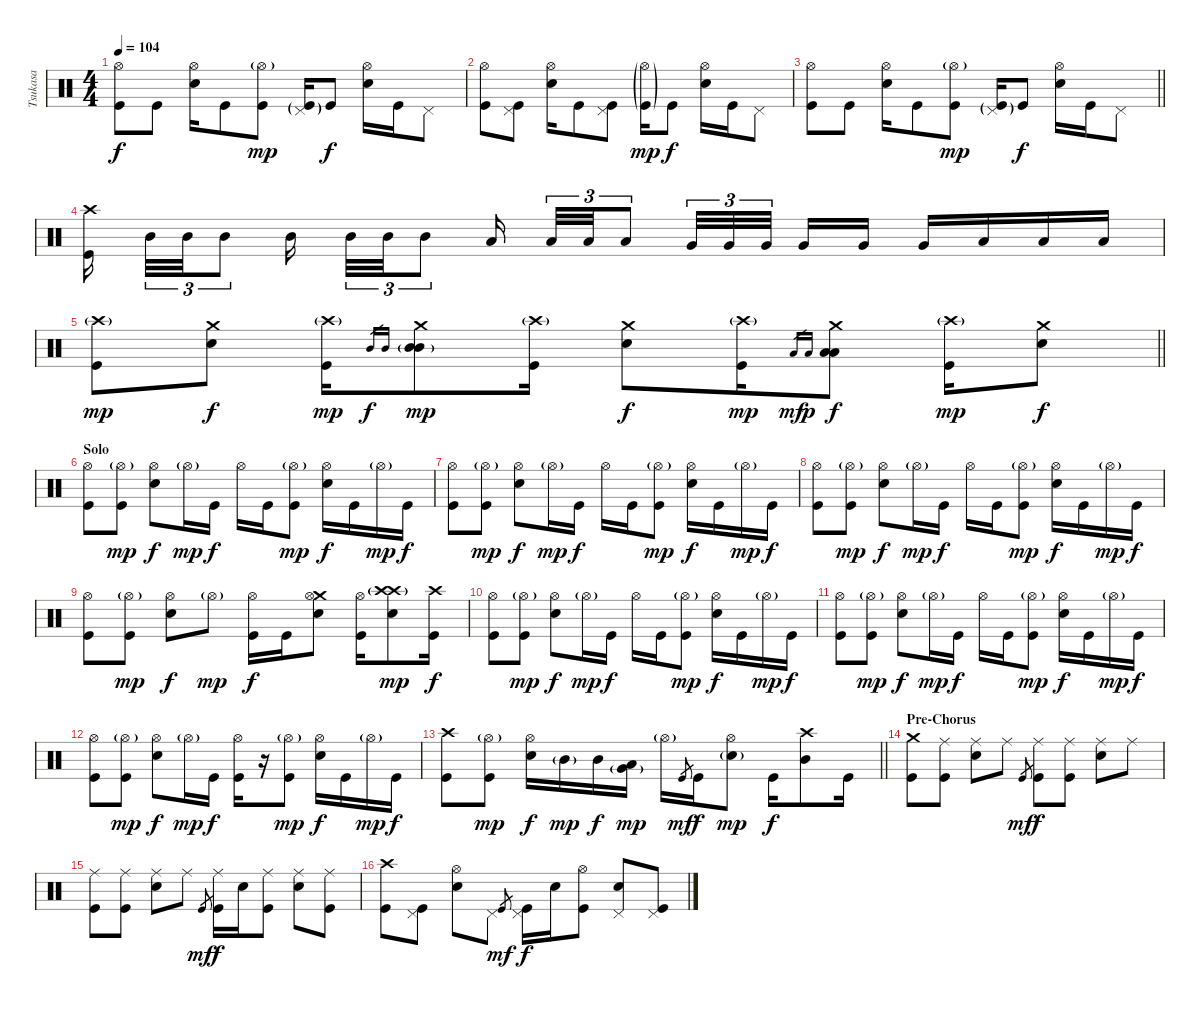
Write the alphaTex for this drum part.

\track ("Tsukasa" "Tsukasa") {instrument percussion}
\staff {score}
\articulation defaults
\ts (4 4)
\tempo 104
\clef neutral
\ks c
("Hi-Hat (open)" "Kick (hit)").8{dy f} "Kick (hit)".8 ("Hi-Hat (open)" "Snare (hit) 2").16 "Kick (hit)".8 ("Hi-Hat (open)"{g} "Kick (hit)").8{dy mp} ("Pedal Hi-Hat (hit)"{g} "Kick (hit)"{g}).16 "Kick (hit)".8{dy f} ("Hi-Hat (open)" "Snare (hit) 2").16 "Kick (hit)".16 "Pedal Hi-Hat (hit)".8 |
("Hi-Hat (open)" "Kick (hit)").8 ("Pedal Hi-Hat (hit)" "Kick (hit)").8 ("Hi-Hat (open)" "Snare (hit) 2").16 "Kick (hit)".8 ("Pedal Hi-Hat (hit)" "Kick (hit)").8 ("Hi-Hat (open)"{g} "Kick (hit)"{g}).16{dy mp} "Kick (hit)".8{dy f} ("Hi-Hat (open)" "Snare (hit) 2").16 "Kick (hit)".16 "Pedal Hi-Hat (hit)".8 |
\barLineRight lightlight
("Hi-Hat (open)" "Kick (hit)").8 "Kick (hit)".8 ("Hi-Hat (open)" "Snare (hit) 2").16 "Kick (hit)".8 ("Hi-Hat (open)"{g} "Kick (hit)").8{dy mp} ("Pedal Hi-Hat (hit)"{g} "Kick (hit)"{g}).16 "Kick (hit)".8{dy f} ("Hi-Hat (open)" "Snare (hit) 2").16 "Kick (hit)".16 "Pedal Hi-Hat (hit)".8 |
\section ("" "")
("Crash high (hit)" "Kick (hit)").16{beam splitsecondary} "Mid Tom (hit)".32{tu (3 2)} "Mid Tom (hit)".32{tu (3 2)} "Mid Tom (hit)".8{tu (3 2)} "Mid Tom (hit)".16 "Mid Tom (hit)".32{tu (3 2)} "Mid Tom (hit)".32{tu (3 2)} "Mid Tom (hit)".8{tu (3 2)} "Low Tom (hit)".16{beam splitsecondary} "Low Tom (hit)".32{tu (3 2)} "Low Tom (hit)".32{tu (3 2)} "Low Tom (hit)".8{tu (3 2)} "Very Low Tom (hit)".32{tu (3 2)} "Very Low Tom (hit)".32{tu (3 2)} "Very Low Tom (hit)".32{tu (3 2) beam splitsecondary} "Very Low Tom (hit)".16 "Very Low Tom (hit)".16 "Very Low Tom (hit)".16 "Low Floor Tom (hit)".16 "Low Floor Tom (hit)".16 "Low Floor Tom (hit)".16 |
\barLineRight lightlight
("Crash high (hit)"{g} "Kick (hit)").8{dy mp} ("Crash medium (hit)" "Snare (hit) 2").8{dy f} ("Crash high (hit)"{g} "Kick (hit)").16{dy mp} "Mid Tom (hit)"{h}.16{gr dy f} "Mid Tom (hit)".16{gr} ("Crash medium (hit)" "Mid Tom (hit)" "Mid Tom (hit)"{g}).8{dy mp} ("Crash high (hit)"{g} "Kick (hit)").16 ("Crash medium (hit)" "Snare (hit) 2").8{dy f} ("Crash high (hit)"{g} "Kick (hit)").16{dy mp} "Low Tom (hit)".16{gr dy mf} "Low Tom (hit)".16{gr dy p} ("Crash medium (hit)" "Low Tom (hit)" "Low Tom (hit)").8{dy f} ("Crash high (hit)"{g} "Kick (hit)").16{dy mp} ("Crash medium (hit)" "Snare (hit) 2").8{dy f} |
\section ("" "Solo")
("Hi-Hat (open)" "Kick (hit)").8 ("Hi-Hat (open)"{g} "Kick (hit)").8{dy mp} ("Hi-Hat (open)" "Snare (hit) 2").8{dy f} "Hi-Hat (open)"{g}.16{dy mp} "Kick (hit)".16{dy f} "Hi-Hat (open)".16 "Kick (hit)".16 ("Hi-Hat (open)"{g} "Kick (hit)").8{dy mp} ("Hi-Hat (open)" "Snare (hit) 2").16{dy f} "Kick (hit)".16 "Hi-Hat (open)"{g}.16{dy mp} "Kick (hit)".16{dy f} |
("Hi-Hat (open)" "Kick (hit)").8 ("Hi-Hat (open)"{g} "Kick (hit)").8{dy mp} ("Hi-Hat (open)" "Snare (hit) 2").8{dy f} "Hi-Hat (open)"{g}.16{dy mp} "Kick (hit)".16{dy f} "Hi-Hat (open)".16 "Kick (hit)".16 ("Hi-Hat (open)"{g} "Kick (hit)").8{dy mp} ("Hi-Hat (open)" "Snare (hit) 2").16{dy f} "Kick (hit)".16 "Hi-Hat (open)"{g}.16{dy mp} "Kick (hit)".16{dy f} |
("Hi-Hat (open)" "Kick (hit)").8 ("Hi-Hat (open)"{g} "Kick (hit)").8{dy mp} ("Hi-Hat (open)" "Snare (hit) 2").8{dy f} "Hi-Hat (open)"{g}.16{dy mp} "Kick (hit)".16{dy f} "Hi-Hat (open)".16 "Kick (hit)".16 ("Hi-Hat (open)"{g} "Kick (hit)").8{dy mp} ("Hi-Hat (open)" "Snare (hit) 2").16{dy f} "Kick (hit)".16 "Hi-Hat (open)"{g}.16{dy mp} "Kick (hit)".16{dy f} |
("Hi-Hat (open)" "Kick (hit)").8 ("Hi-Hat (open)"{g} "Kick (hit)").8{dy mp} ("Hi-Hat (open)" "Snare (hit) 2").8{dy f} "Hi-Hat (open)"{g}.8{dy mp} ("Hi-Hat (open)" "Kick (hit)").16{dy f} "Kick (hit)".16 ("Crash medium (hit)" "Hi-Hat (open)" "Snare (hit) 2").8 ("Hi-Hat (open)" "Kick (hit)").16 ("Crash high (hit)"{g} "Crash high (hit)"{g} "Snare (hit) 2").8{dy mp} ("Crash high (hit)" "Kick (hit)").16{dy f} |
("Hi-Hat (open)" "Kick (hit)").8 ("Hi-Hat (open)"{g} "Kick (hit)").8{dy mp} ("Hi-Hat (open)" "Snare (hit) 2").8{dy f} "Hi-Hat (open)"{g}.16{dy mp} "Kick (hit)".16{dy f} "Hi-Hat (open)".16 "Kick (hit)".16 ("Hi-Hat (open)"{g} "Kick (hit)").8{dy mp} ("Hi-Hat (open)" "Snare (hit) 2").16{dy f} "Kick (hit)".16 "Hi-Hat (open)"{g}.16{dy mp} "Kick (hit)".16{dy f} |
("Hi-Hat (open)" "Kick (hit)").8 ("Hi-Hat (open)"{g} "Kick (hit)").8{dy mp} ("Hi-Hat (open)" "Snare (hit) 2").8{dy f} "Hi-Hat (open)"{g}.16{dy mp} "Kick (hit)".16{dy f} "Hi-Hat (open)".16 "Kick (hit)".16 ("Hi-Hat (open)"{g} "Kick (hit)").8{dy mp} ("Hi-Hat (open)" "Snare (hit) 2").16{dy f} "Kick (hit)".16 "Hi-Hat (open)"{g}.16{dy mp} "Kick (hit)".16{dy f} |
("Hi-Hat (open)" "Kick (hit)").8 ("Hi-Hat (open)"{g} "Kick (hit)").8{dy mp} ("Hi-Hat (open)" "Snare (hit) 2").8{dy f} "Hi-Hat (open)"{g}.16{dy mp} "Kick (hit)".16{dy f} ("Hi-Hat (open)" "Kick (hit)").16 r.16 ("Hi-Hat (open)"{g} "Kick (hit)").8{dy mp} ("Hi-Hat (open)" "Snare (hit) 2").16{dy f} "Kick (hit)".16 "Hi-Hat (open)"{g}.16{dy mp} "Kick (hit)".16{dy f} |
\barLineRight lightlight
("Crash high (hit)" "Kick (hit)").8 ("Hi-Hat (open)"{g} "Kick (hit)").8{dy mp} ("Hi-Hat (open)" "Snare (hit) 2").16{dy f} "Mid Tom (hit)"{g}.16{dy mp} "Mid Tom (hit)".16{dy f} ("Low Tom (hit)" "Very Low Tom (hit)"{g}).16{dy mp} "Hi-Hat (open)"{g}.16 "Kick (hit)".8{gr dy mf} "Kick (hit)".16{dy f} ("Hi-Hat (open)" "Snare (hit) 2"{g}).8{dy mp} "Kick (hit)".16{dy f} ("Crash high (hit)" "Mid Tom (hit)").8 "Kick (hit)".16 |
\section ("" "Pre-Chorus")
("Crash medium (hit)" "Kick (hit)").8 ("Ride (middle)" "Kick (hit)").8 ("Ride (middle)" "Snare (hit) 2").8 "Ride (middle)".8 "Kick (hit)".8{gr dy mf} ("Ride (middle)" "Kick (hit)").8{dy f} ("Ride (middle)" "Kick (hit)").8 ("Ride (middle)" "Snare (hit) 2").8 "Ride (middle)".8 |
("Ride (middle)" "Kick (hit)").8 ("Ride (middle)" "Kick (hit)").8 ("Ride (middle)" "Snare (hit) 2").8 "Ride (middle)".8 "Kick (hit)".8{gr dy mf} ("Ride (middle)" "Kick (hit)").16{dy f} "Snare (hit) 2".16 ("Ride (middle)" "Kick (hit)").8 ("Ride (middle)" "Snare (hit) 2").8 ("Ride (middle)" "Kick (hit)").8 |
("Crash high (hit)" "Kick (hit)").8 ("Pedal Hi-Hat (hit)" "Kick (hit)").8 ("Hi-Hat (open)" "Snare (hit) 2").8 "Pedal Hi-Hat (hit)".8 "Kick (hit)".8{gr dy mf} ("Pedal Hi-Hat (hit)" "Kick (hit)").16{dy f} "Snare (hit) 2".16 ("Hi-Hat (open)" "Kick (hit)").8 ("Pedal Hi-Hat (hit)" "Snare (hit) 2").8 ("Pedal Hi-Hat (hit)" "Kick (hit)").8
